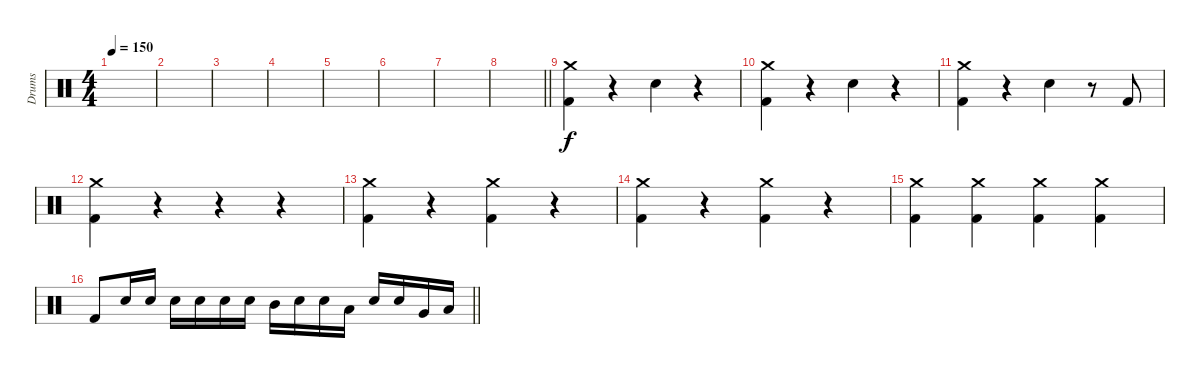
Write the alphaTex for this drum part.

\track ("Drums" "Drums") {instrument percussion}
\staff {score}
\articulation defaults
\ts (4 4)
\tempo 150
\clef neutral
\ks c
|
|
|
|
|
|
|
\barLineRight lightlight
|
("Crash medium (hit)" "Kick (hit) 2").4 r.4 "Snare (hit) 2".4 r.4 |
("Crash medium (hit)" "Kick (hit) 2").4 r.4 "Snare (hit) 2".4 r.4 |
("Crash medium (hit)" "Kick (hit) 2").4 r.4 "Snare (hit) 2".4 r.8 "Kick (hit) 2".8 |
("Crash medium (hit)" "Kick (hit) 2").4 r.4 r.4 r.4 |
("Crash medium (hit)" "Kick (hit) 2").4 r.4 ("Crash medium (hit)" "Kick (hit) 2").4 r.4 |
("Crash medium (hit)" "Kick (hit) 2").4 r.4 ("Crash medium (hit)" "Kick (hit) 2").4 r.4 |
("Crash medium (hit)" "Kick (hit) 2").4 ("Crash medium (hit)" "Kick (hit) 2").4 ("Crash medium (hit)" "Kick (hit) 2").4 ("Crash medium (hit)" "Kick (hit) 2").4 |
\barLineRight lightlight "Kick (hit) 2".8 "Snare (hit) 2".16 "Snare (hit) 2".16 "Snare (hit) 2".16 "Snare (hit) 2".16 "Snare (hit) 2".16 "Snare (hit) 2".16 "Mid Tom (hit)".16 "Snare (hit) 2".16 "Snare (hit) 2".16 "Low Tom (hit)".16 "Snare (hit) 2".16 "Snare (hit) 2".16 "Very Low Tom (hit)".16 "Low Floor Tom (hit)".16
